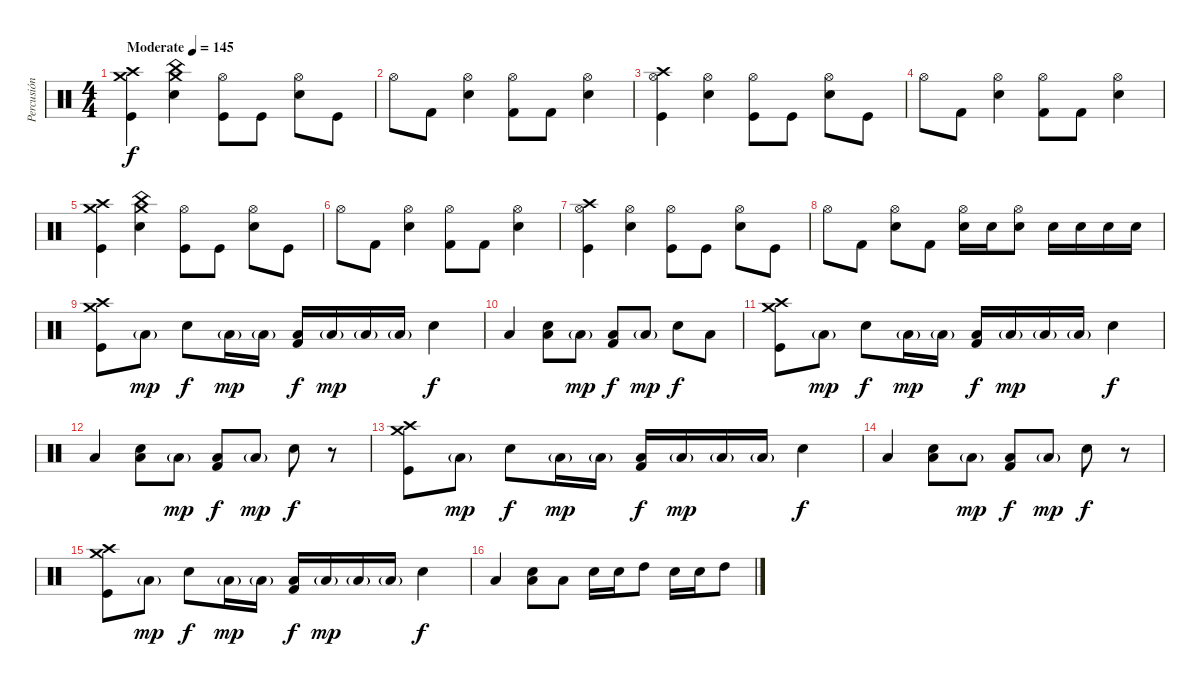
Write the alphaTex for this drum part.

\track ("Percusión" "Percusión") {instrument percussion}
\staff {score}
\articulation defaults
\ts (4 4)
\tempo (145 "Moderate")
\clef neutral
\ks c
("Kick (hit)" "Crash high (hit)" "Crash medium (hit)").4{dy f} ("Electric Snare (hit)" "China (hit)" "Crash medium (hit)").4 ("Hi-Hat (open)" "Kick (hit)").8 "Kick (hit)".8 ("Hi-Hat (open)" "Electric Snare (hit)").8 "Kick (hit)".8 |
"Hi-Hat (open)".8 "Kick (hit) 2".8 ("Hi-Hat (open)" "Electric Snare (hit)").4 ("Hi-Hat (open)" "Kick (hit) 2").8 "Kick (hit) 2".8 ("Hi-Hat (open)" "Electric Snare (hit)").4 |
("Hi-Hat (open)" "Crash high (hit)" "Kick (hit)").4 ("Hi-Hat (open)" "Electric Snare (hit)").4 ("Hi-Hat (open)" "Kick (hit)").8 "Kick (hit)".8 ("Hi-Hat (open)" "Electric Snare (hit)").8 "Kick (hit)".8 |
"Hi-Hat (open)".8 "Kick (hit) 2".8 ("Hi-Hat (open)" "Electric Snare (hit)").4 ("Hi-Hat (open)" "Kick (hit) 2").8 "Kick (hit) 2".8 ("Hi-Hat (open)" "Electric Snare (hit)").4 |
("Kick (hit)" "Crash high (hit)" "Crash medium (hit)").4 ("Electric Snare (hit)" "China (hit)" "Crash medium (hit)").4 ("Hi-Hat (open)" "Kick (hit)").8 "Kick (hit)".8 ("Hi-Hat (open)" "Electric Snare (hit)").8 "Kick (hit)".8 |
"Hi-Hat (open)".8 "Kick (hit) 2".8 ("Hi-Hat (open)" "Electric Snare (hit)").4 ("Hi-Hat (open)" "Kick (hit) 2").8 "Kick (hit) 2".8 ("Hi-Hat (open)" "Electric Snare (hit)").4 |
("Hi-Hat (open)" "Crash high (hit)" "Kick (hit)").4 ("Hi-Hat (open)" "Electric Snare (hit)").4 ("Hi-Hat (open)" "Kick (hit)").8 "Kick (hit)".8 ("Hi-Hat (open)" "Electric Snare (hit)").8 "Kick (hit)".8 |
"Hi-Hat (open)".8 "Kick (hit) 2".8 ("Hi-Hat (open)" "Electric Snare (hit)").8 "Kick (hit) 2".8 ("Hi-Hat (open)" "Electric Snare (hit)").16 "Electric Snare (hit)".16 ("Hi-Hat (open)" "Electric Snare (hit)").8 "Electric Snare (hit)".16 "Electric Snare (hit)".16 "Electric Snare (hit)".16 "Electric Snare (hit)".16 |
("Kick (hit)" "Crash high (hit)" "Crash medium (hit)").8 "Low Floor Tom (hit)"{g}.8{dy mp} "Electric Snare (hit)".8{dy f} "Low Floor Tom (hit)"{g}.16{dy mp} "Low Floor Tom (hit)"{g}.16 ("Low Floor Tom (hit)" "Kick (hit) 2").16{dy f} "Low Floor Tom (hit)"{g}.16{dy mp} "Low Floor Tom (hit)"{g}.16 "Low Floor Tom (hit)"{g}.16 "Electric Snare (hit)".4{dy f} |
"Low Floor Tom (hit)".4 ("Electric Snare (hit)" "Low Floor Tom (hit)").8 "Low Floor Tom (hit)"{g}.8{dy mp} ("Low Floor Tom (hit)" "Kick (hit) 2").8{dy f} "Low Floor Tom (hit)"{g}.8{dy mp} "Electric Snare (hit)".8{dy f} "Low Floor Tom (hit)".8 |
("Kick (hit)" "Crash high (hit)" "Crash medium (hit)").8 "Low Floor Tom (hit)"{g}.8{dy mp} "Electric Snare (hit)".8{dy f} "Low Floor Tom (hit)"{g}.16{dy mp} "Low Floor Tom (hit)"{g}.16 ("Low Floor Tom (hit)" "Kick (hit) 2").16{dy f} "Low Floor Tom (hit)"{g}.16{dy mp} "Low Floor Tom (hit)"{g}.16 "Low Floor Tom (hit)"{g}.16 "Electric Snare (hit)".4{dy f} |
"Low Floor Tom (hit)".4 ("Electric Snare (hit)" "Low Floor Tom (hit)").8 "Low Floor Tom (hit)"{g}.8{dy mp} ("Low Floor Tom (hit)" "Kick (hit) 2").8{dy f} "Low Floor Tom (hit)"{g}.8{dy mp} "Electric Snare (hit)".8{dy f} r.8 |
("Kick (hit)" "Crash high (hit)" "Crash medium (hit)").8 "Low Floor Tom (hit)"{g}.8{dy mp} "Electric Snare (hit)".8{dy f} "Low Floor Tom (hit)"{g}.16{dy mp} "Low Floor Tom (hit)"{g}.16 ("Low Floor Tom (hit)" "Kick (hit) 2").16{dy f} "Low Floor Tom (hit)"{g}.16{dy mp} "Low Floor Tom (hit)"{g}.16 "Low Floor Tom (hit)"{g}.16 "Electric Snare (hit)".4{dy f} |
"Low Floor Tom (hit)".4 ("Electric Snare (hit)" "Low Floor Tom (hit)").8 "Low Floor Tom (hit)"{g}.8{dy mp} ("Low Floor Tom (hit)" "Kick (hit) 2").8{dy f} "Low Floor Tom (hit)"{g}.8{dy mp} "Electric Snare (hit)".8{dy f} r.8 |
("Kick (hit)" "Crash high (hit)" "Crash medium (hit)").8 "Low Floor Tom (hit)"{g}.8{dy mp} "Electric Snare (hit)".8{dy f} "Low Floor Tom (hit)"{g}.16{dy mp} "Low Floor Tom (hit)"{g}.16 ("Low Floor Tom (hit)" "Kick (hit) 2").16{dy f} "Low Floor Tom (hit)"{g}.16{dy mp} "Low Floor Tom (hit)"{g}.16 "Low Floor Tom (hit)"{g}.16 "Electric Snare (hit)".4{dy f} |
"Low Floor Tom (hit)".4 ("Electric Snare (hit)" "Low Floor Tom (hit)").8 "Low Floor Tom (hit)".8 "Electric Snare (hit)".16 "Electric Snare (hit)".16 "High Tom (hit)".8 "Electric Snare (hit)".16 "Electric Snare (hit)".16 "High Tom (hit)".8
